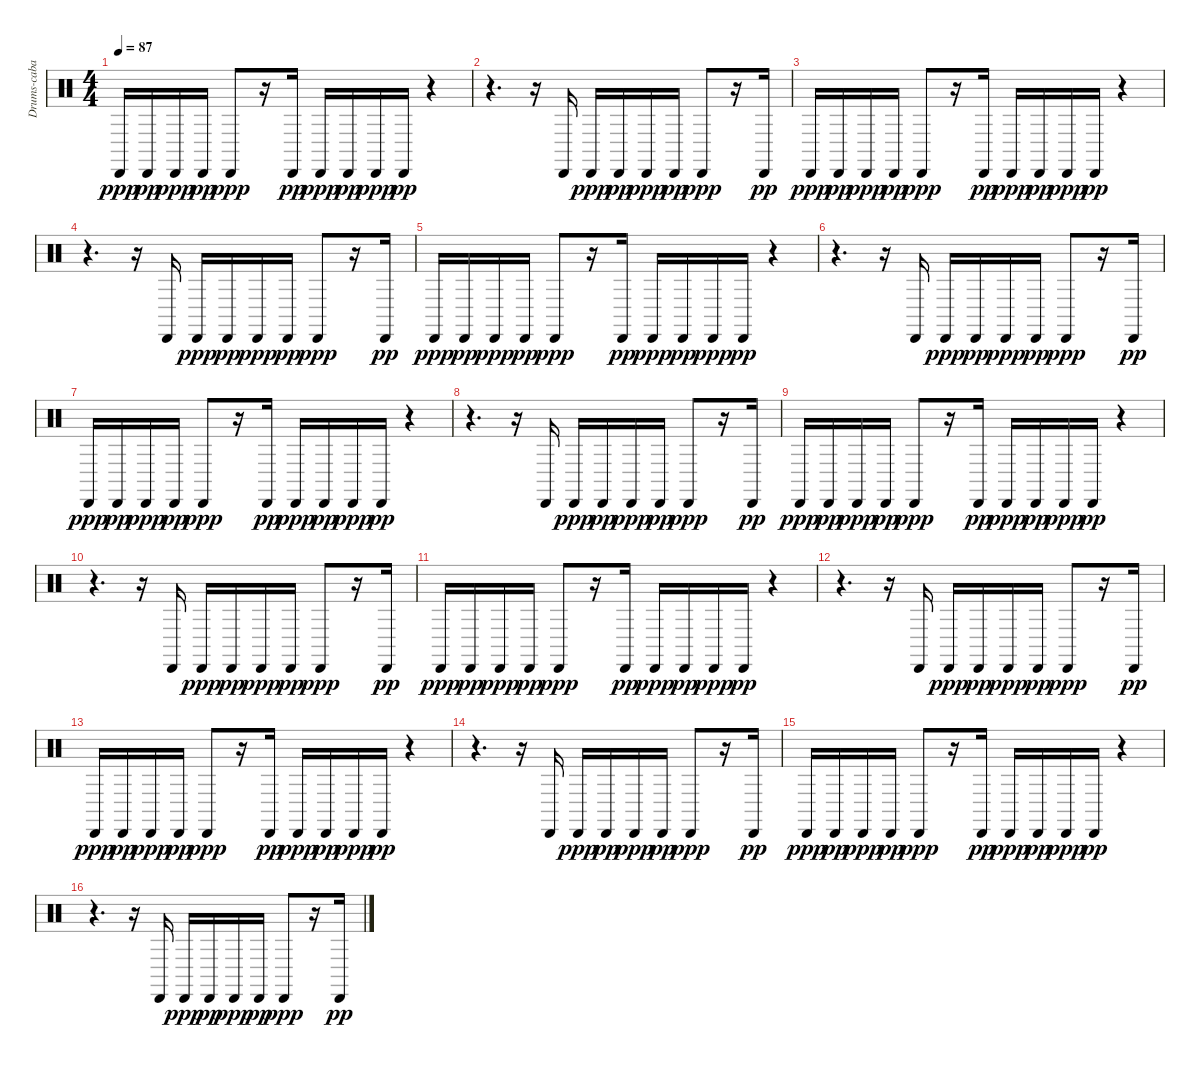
\track ("Drums-cabasa" "Drums-caba") {instrument percussion}
\staff {score}
\articulation defaults
\ts (4 4)
\tempo 87
\clef neutral
\ks c "Cabasa (hit)".16{dy ppp} "Cabasa (hit)".16{dy pp} "Cabasa (hit)".16{dy ppp} "Cabasa (hit)".16{dy pp} "Cabasa (hit)".8{dy ppp}
r.16 "Cabasa (hit)".16{dy pp} "Cabasa (hit)".16{dy ppp} "Cabasa (hit)".16{dy pp} "Cabasa (hit)".16{dy ppp} "Cabasa (hit)".16{dy pp} r.4 |
r.4{d} r.16 "Cabasa (hit)".16 "Cabasa (hit)".16{dy ppp} "Cabasa (hit)".16{dy pp} "Cabasa (hit)".16{dy ppp} "Cabasa (hit)".16{dy pp} "Cabasa (hit)".8{dy ppp} r.16 "Cabasa (hit)".16{dy pp} |
"Cabasa (hit)".16{dy ppp} "Cabasa (hit)".16{dy pp} "Cabasa (hit)".16{dy ppp} "Cabasa (hit)".16{dy pp} "Cabasa (hit)".8{dy ppp} r.16 "Cabasa (hit)".16{dy pp} "Cabasa (hit)".16{dy ppp} "Cabasa (hit)".16{dy pp} "Cabasa (hit)".16{dy ppp} "Cabasa (hit)".16{dy pp} r.4 |
r.4{d} r.16 "Cabasa (hit)".16 "Cabasa (hit)".16{dy ppp} "Cabasa (hit)".16{dy pp} "Cabasa (hit)".16{dy ppp} "Cabasa (hit)".16{dy pp} "Cabasa (hit)".8{dy ppp} r.16 "Cabasa (hit)".16{dy pp} |
"Cabasa (hit)".16{dy ppp} "Cabasa (hit)".16{dy pp} "Cabasa (hit)".16{dy ppp} "Cabasa (hit)".16{dy pp} "Cabasa (hit)".8{dy ppp} r.16 "Cabasa (hit)".16{dy pp} "Cabasa (hit)".16{dy ppp} "Cabasa (hit)".16{dy pp} "Cabasa (hit)".16{dy ppp} "Cabasa (hit)".16{dy pp} r.4 |
r.4{d} r.16 "Cabasa (hit)".16 "Cabasa (hit)".16{dy ppp} "Cabasa (hit)".16{dy pp} "Cabasa (hit)".16{dy ppp} "Cabasa (hit)".16{dy pp} "Cabasa (hit)".8{dy ppp} r.16 "Cabasa (hit)".16{dy pp} |
"Cabasa (hit)".16{dy ppp} "Cabasa (hit)".16{dy pp} "Cabasa (hit)".16{dy ppp} "Cabasa (hit)".16{dy pp} "Cabasa (hit)".8{dy ppp} r.16 "Cabasa (hit)".16{dy pp} "Cabasa (hit)".16{dy ppp} "Cabasa (hit)".16{dy pp} "Cabasa (hit)".16{dy ppp} "Cabasa (hit)".16{dy pp} r.4 |
r.4{d} r.16 "Cabasa (hit)".16 "Cabasa (hit)".16{dy ppp} "Cabasa (hit)".16{dy pp} "Cabasa (hit)".16{dy ppp} "Cabasa (hit)".16{dy pp} "Cabasa (hit)".8{dy ppp} r.16 "Cabasa (hit)".16{dy pp} |
"Cabasa (hit)".16{dy ppp} "Cabasa (hit)".16{dy pp} "Cabasa (hit)".16{dy ppp} "Cabasa (hit)".16{dy pp} "Cabasa (hit)".8{dy ppp} r.16 "Cabasa (hit)".16{dy pp} "Cabasa (hit)".16{dy ppp} "Cabasa (hit)".16{dy pp} "Cabasa (hit)".16{dy ppp} "Cabasa (hit)".16{dy pp} r.4 |
r.4{d} r.16 "Cabasa (hit)".16 "Cabasa (hit)".16{dy ppp} "Cabasa (hit)".16{dy pp} "Cabasa (hit)".16{dy ppp} "Cabasa (hit)".16{dy pp} "Cabasa (hit)".8{dy ppp} r.16 "Cabasa (hit)".16{dy pp} |
"Cabasa (hit)".16{dy ppp} "Cabasa (hit)".16{dy pp} "Cabasa (hit)".16{dy ppp} "Cabasa (hit)".16{dy pp} "Cabasa (hit)".8{dy ppp} r.16 "Cabasa (hit)".16{dy pp} "Cabasa (hit)".16{dy ppp} "Cabasa (hit)".16{dy pp} "Cabasa (hit)".16{dy ppp} "Cabasa (hit)".16{dy pp} r.4 |
r.4{d} r.16 "Cabasa (hit)".16 "Cabasa (hit)".16{dy ppp} "Cabasa (hit)".16{dy pp} "Cabasa (hit)".16{dy ppp} "Cabasa (hit)".16{dy pp} "Cabasa (hit)".8{dy ppp} r.16 "Cabasa (hit)".16{dy pp} |
"Cabasa (hit)".16{dy ppp} "Cabasa (hit)".16{dy pp} "Cabasa (hit)".16{dy ppp} "Cabasa (hit)".16{dy pp} "Cabasa (hit)".8{dy ppp} r.16 "Cabasa (hit)".16{dy pp} "Cabasa (hit)".16{dy ppp} "Cabasa (hit)".16{dy pp} "Cabasa (hit)".16{dy ppp} "Cabasa (hit)".16{dy pp} r.4 |
r.4{d} r.16 "Cabasa (hit)".16 "Cabasa (hit)".16{dy ppp} "Cabasa (hit)".16{dy pp} "Cabasa (hit)".16{dy ppp} "Cabasa (hit)".16{dy pp} "Cabasa (hit)".8{dy ppp} r.16 "Cabasa (hit)".16{dy pp} |
"Cabasa (hit)".16{dy ppp} "Cabasa (hit)".16{dy pp} "Cabasa (hit)".16{dy ppp} "Cabasa (hit)".16{dy pp} "Cabasa (hit)".8{dy ppp} r.16 "Cabasa (hit)".16{dy pp} "Cabasa (hit)".16{dy ppp} "Cabasa (hit)".16{dy pp} "Cabasa (hit)".16{dy ppp} "Cabasa (hit)".16{dy pp} r.4 |
r.4{d} r.16 "Cabasa (hit)".16 "Cabasa (hit)".16{dy ppp} "Cabasa (hit)".16{dy pp} "Cabasa (hit)".16{dy ppp} "Cabasa (hit)".16{dy pp} "Cabasa (hit)".8{dy ppp} r.16 "Cabasa (hit)".16{dy pp}
